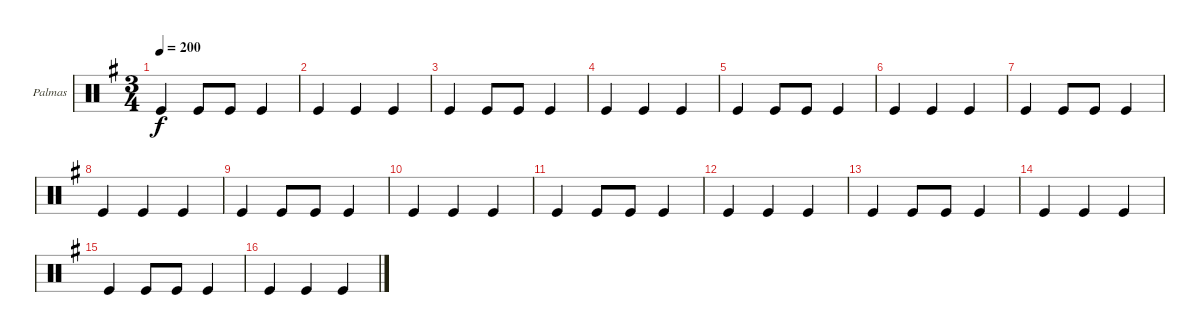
\defaultSystemsLayout 4
\bracketExtendMode groupsimilarinstruments
\firstSystemTrackNameOrientation horizontal
\otherSystemsTrackNameOrientation horizontal
\track ("Palmas" "Palmas") {instrument percussion}
\staff {score}
\articulation defaults
\ts (3 4)
\tempo 200
\clef neutral
\ks g "Kick (hit)".4{dy f} "Kick (hit)".8 "Kick (hit)".8 "Kick (hit)".4
|
"Kick (hit)".4 "Kick (hit)".4 "Kick (hit)".4 |
"Kick (hit)".4 "Kick (hit)".8 "Kick (hit)".8 "Kick (hit)".4 |
"Kick (hit)".4 "Kick (hit)".4 "Kick (hit)".4 |
"Kick (hit)".4 "Kick (hit)".8 "Kick (hit)".8 "Kick (hit)".4 |
"Kick (hit)".4 "Kick (hit)".4 "Kick (hit)".4 |
"Kick (hit)".4 "Kick (hit)".8 "Kick (hit)".8 "Kick (hit)".4 |
"Kick (hit)".4 "Kick (hit)".4 "Kick (hit)".4 |
"Kick (hit)".4 "Kick (hit)".8 "Kick (hit)".8 "Kick (hit)".4 |
"Kick (hit)".4 "Kick (hit)".4 "Kick (hit)".4 |
"Kick (hit)".4 "Kick (hit)".8 "Kick (hit)".8 "Kick (hit)".4 |
"Kick (hit)".4 "Kick (hit)".4 "Kick (hit)".4 |
"Kick (hit)".4 "Kick (hit)".8 "Kick (hit)".8 "Kick (hit)".4 |
"Kick (hit)".4 "Kick (hit)".4 "Kick (hit)".4 |
"Kick (hit)".4 "Kick (hit)".8 "Kick (hit)".8 "Kick (hit)".4 |
"Kick (hit)".4 "Kick (hit)".4 "Kick (hit)".4
